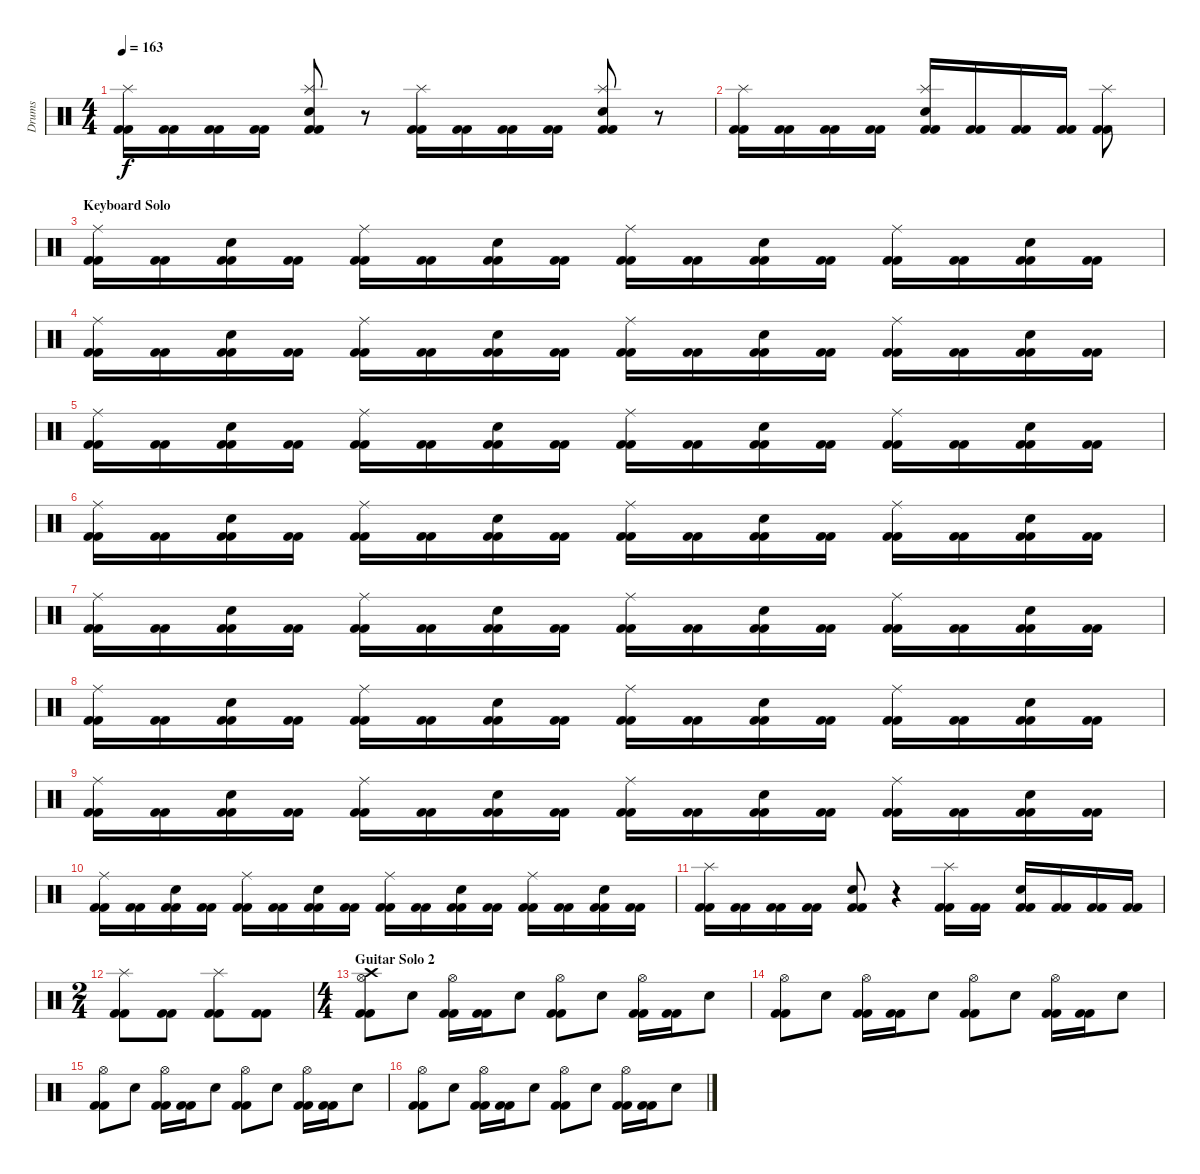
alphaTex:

\track ("Drums" "Drums") {instrument percussion}
\staff {score}
\articulation defaults
\ts (4 4)
\tempo 163
\clef neutral
\ks c
("Kick (hit) 2" "Kick (hit) 2" "Splash (hit)").16{dy f} ("Kick (hit) 2" "Kick (hit) 2").16 ("Kick (hit) 2" "Kick (hit) 2").16 ("Kick (hit) 2" "Kick (hit) 2").16 ("Kick (hit) 2" "Kick (hit) 2" "Snare (hit) 2" "Splash (hit)").8 r.8 ("Kick (hit) 2" "Kick (hit) 2" "Splash (hit)").16 ("Kick (hit) 2" "Kick (hit) 2").16 ("Kick (hit) 2" "Kick (hit) 2").16 ("Kick (hit) 2" "Kick (hit) 2").16 ("Kick (hit) 2" "Kick (hit) 2" "Snare (hit) 2" "Splash (hit)").8 r.8 |
("Kick (hit) 2" "Kick (hit) 2" "Splash (hit)").16 ("Kick (hit) 2" "Kick (hit) 2").16 ("Kick (hit) 2" "Kick (hit) 2").16 ("Kick (hit) 2" "Kick (hit) 2").16 ("Kick (hit) 2" "Kick (hit) 2" "Snare (hit) 2" "Splash (hit)").16 ("Kick (hit) 2" "Kick (hit) 2").16 ("Kick (hit) 2" "Kick (hit) 2").16 ("Kick (hit) 2" "Kick (hit) 2").16 ("Kick (hit) 2" "Kick (hit) 2" "Splash (hit)").8 |
\section ("" "Keyboard Solo")
("Kick (hit) 2" "Kick (hit) 2" "Ride (middle)").16 ("Kick (hit) 2" "Kick (hit) 2").16 ("Kick (hit) 2" "Kick (hit) 2" "Snare (hit) 2").16 ("Kick (hit) 2" "Kick (hit) 2").16 ("Kick (hit) 2" "Kick (hit) 2" "Ride (middle)").16 ("Kick (hit) 2" "Kick (hit) 2").16 ("Kick (hit) 2" "Kick (hit) 2" "Snare (hit) 2").16 ("Kick (hit) 2" "Kick (hit) 2").16 ("Kick (hit) 2" "Kick (hit) 2" "Ride (middle)").16 ("Kick (hit) 2" "Kick (hit) 2").16 ("Kick (hit) 2" "Kick (hit) 2" "Snare (hit) 2").16 ("Kick (hit) 2" "Kick (hit) 2").16 ("Kick (hit) 2" "Kick (hit) 2" "Ride (middle)").16 ("Kick (hit) 2" "Kick (hit) 2").16 ("Kick (hit) 2" "Kick (hit) 2" "Snare (hit) 2").16 ("Kick (hit) 2" "Kick (hit) 2").16 |
("Kick (hit) 2" "Kick (hit) 2" "Ride (middle)").16 ("Kick (hit) 2" "Kick (hit) 2").16 ("Kick (hit) 2" "Kick (hit) 2" "Snare (hit) 2").16 ("Kick (hit) 2" "Kick (hit) 2").16 ("Kick (hit) 2" "Kick (hit) 2" "Ride (middle)").16 ("Kick (hit) 2" "Kick (hit) 2").16 ("Kick (hit) 2" "Kick (hit) 2" "Snare (hit) 2").16 ("Kick (hit) 2" "Kick (hit) 2").16 ("Kick (hit) 2" "Kick (hit) 2" "Ride (middle)").16 ("Kick (hit) 2" "Kick (hit) 2").16 ("Kick (hit) 2" "Kick (hit) 2" "Snare (hit) 2").16 ("Kick (hit) 2" "Kick (hit) 2").16 ("Kick (hit) 2" "Kick (hit) 2" "Ride (middle)").16 ("Kick (hit) 2" "Kick (hit) 2").16 ("Kick (hit) 2" "Kick (hit) 2" "Snare (hit) 2").16 ("Kick (hit) 2" "Kick (hit) 2").16 |
("Kick (hit) 2" "Kick (hit) 2" "Ride (middle)").16 ("Kick (hit) 2" "Kick (hit) 2").16 ("Kick (hit) 2" "Kick (hit) 2" "Snare (hit) 2").16 ("Kick (hit) 2" "Kick (hit) 2").16 ("Kick (hit) 2" "Kick (hit) 2" "Ride (middle)").16 ("Kick (hit) 2" "Kick (hit) 2").16 ("Kick (hit) 2" "Kick (hit) 2" "Snare (hit) 2").16 ("Kick (hit) 2" "Kick (hit) 2").16 ("Kick (hit) 2" "Kick (hit) 2" "Ride (middle)").16 ("Kick (hit) 2" "Kick (hit) 2").16 ("Kick (hit) 2" "Kick (hit) 2" "Snare (hit) 2").16 ("Kick (hit) 2" "Kick (hit) 2").16 ("Kick (hit) 2" "Kick (hit) 2" "Ride (middle)").16 ("Kick (hit) 2" "Kick (hit) 2").16 ("Kick (hit) 2" "Kick (hit) 2" "Snare (hit) 2").16 ("Kick (hit) 2" "Kick (hit) 2").16 |
("Kick (hit) 2" "Kick (hit) 2" "Ride (middle)").16 ("Kick (hit) 2" "Kick (hit) 2").16 ("Kick (hit) 2" "Kick (hit) 2" "Snare (hit) 2").16 ("Kick (hit) 2" "Kick (hit) 2").16 ("Kick (hit) 2" "Kick (hit) 2" "Ride (middle)").16 ("Kick (hit) 2" "Kick (hit) 2").16 ("Kick (hit) 2" "Kick (hit) 2" "Snare (hit) 2").16 ("Kick (hit) 2" "Kick (hit) 2").16 ("Kick (hit) 2" "Kick (hit) 2" "Ride (middle)").16 ("Kick (hit) 2" "Kick (hit) 2").16 ("Kick (hit) 2" "Kick (hit) 2" "Snare (hit) 2").16 ("Kick (hit) 2" "Kick (hit) 2").16 ("Kick (hit) 2" "Kick (hit) 2" "Ride (middle)").16 ("Kick (hit) 2" "Kick (hit) 2").16 ("Kick (hit) 2" "Kick (hit) 2" "Snare (hit) 2").16 ("Kick (hit) 2" "Kick (hit) 2").16 |
("Kick (hit) 2" "Kick (hit) 2" "Ride (middle)").16 ("Kick (hit) 2" "Kick (hit) 2").16 ("Kick (hit) 2" "Kick (hit) 2" "Snare (hit) 2").16 ("Kick (hit) 2" "Kick (hit) 2").16 ("Kick (hit) 2" "Kick (hit) 2" "Ride (middle)").16 ("Kick (hit) 2" "Kick (hit) 2").16 ("Kick (hit) 2" "Kick (hit) 2" "Snare (hit) 2").16 ("Kick (hit) 2" "Kick (hit) 2").16 ("Kick (hit) 2" "Kick (hit) 2" "Ride (middle)").16 ("Kick (hit) 2" "Kick (hit) 2").16 ("Kick (hit) 2" "Kick (hit) 2" "Snare (hit) 2").16 ("Kick (hit) 2" "Kick (hit) 2").16 ("Kick (hit) 2" "Kick (hit) 2" "Ride (middle)").16 ("Kick (hit) 2" "Kick (hit) 2").16 ("Kick (hit) 2" "Kick (hit) 2" "Snare (hit) 2").16 ("Kick (hit) 2" "Kick (hit) 2").16 |
("Kick (hit) 2" "Kick (hit) 2" "Ride (middle)").16 ("Kick (hit) 2" "Kick (hit) 2").16 ("Kick (hit) 2" "Kick (hit) 2" "Snare (hit) 2").16 ("Kick (hit) 2" "Kick (hit) 2").16 ("Kick (hit) 2" "Kick (hit) 2" "Ride (middle)").16 ("Kick (hit) 2" "Kick (hit) 2").16 ("Kick (hit) 2" "Kick (hit) 2" "Snare (hit) 2").16 ("Kick (hit) 2" "Kick (hit) 2").16 ("Kick (hit) 2" "Kick (hit) 2" "Ride (middle)").16 ("Kick (hit) 2" "Kick (hit) 2").16 ("Kick (hit) 2" "Kick (hit) 2" "Snare (hit) 2").16 ("Kick (hit) 2" "Kick (hit) 2").16 ("Kick (hit) 2" "Kick (hit) 2" "Ride (middle)").16 ("Kick (hit) 2" "Kick (hit) 2").16 ("Kick (hit) 2" "Kick (hit) 2" "Snare (hit) 2").16 ("Kick (hit) 2" "Kick (hit) 2").16 |
("Kick (hit) 2" "Kick (hit) 2" "Ride (middle)").16 ("Kick (hit) 2" "Kick (hit) 2").16 ("Kick (hit) 2" "Kick (hit) 2" "Snare (hit) 2").16 ("Kick (hit) 2" "Kick (hit) 2").16 ("Kick (hit) 2" "Kick (hit) 2" "Ride (middle)").16 ("Kick (hit) 2" "Kick (hit) 2").16 ("Kick (hit) 2" "Kick (hit) 2" "Snare (hit) 2").16 ("Kick (hit) 2" "Kick (hit) 2").16 ("Kick (hit) 2" "Kick (hit) 2" "Ride (middle)").16 ("Kick (hit) 2" "Kick (hit) 2").16 ("Kick (hit) 2" "Kick (hit) 2" "Snare (hit) 2").16 ("Kick (hit) 2" "Kick (hit) 2").16 ("Kick (hit) 2" "Kick (hit) 2" "Ride (middle)").16 ("Kick (hit) 2" "Kick (hit) 2").16 ("Kick (hit) 2" "Kick (hit) 2" "Snare (hit) 2").16 ("Kick (hit) 2" "Kick (hit) 2").16 |
("Kick (hit) 2" "Kick (hit) 2" "Ride (middle)").16 ("Kick (hit) 2" "Kick (hit) 2").16 ("Kick (hit) 2" "Kick (hit) 2" "Snare (hit) 2").16 ("Kick (hit) 2" "Kick (hit) 2").16 ("Kick (hit) 2" "Kick (hit) 2" "Ride (middle)").16 ("Kick (hit) 2" "Kick (hit) 2").16 ("Kick (hit) 2" "Kick (hit) 2" "Snare (hit) 2").16 ("Kick (hit) 2" "Kick (hit) 2").16 ("Kick (hit) 2" "Kick (hit) 2" "Ride (middle)").16 ("Kick (hit) 2" "Kick (hit) 2").16 ("Kick (hit) 2" "Kick (hit) 2" "Snare (hit) 2").16 ("Kick (hit) 2" "Kick (hit) 2").16 ("Kick (hit) 2" "Kick (hit) 2" "Ride (middle)").16 ("Kick (hit) 2" "Kick (hit) 2").16 ("Kick (hit) 2" "Kick (hit) 2" "Snare (hit) 2").16 ("Kick (hit) 2" "Kick (hit) 2").16 |
("Kick (hit) 2" "Kick (hit) 2" "Splash (hit)").16 ("Kick (hit) 2" "Kick (hit) 2").16 ("Kick (hit) 2" "Kick (hit) 2").16 ("Kick (hit) 2" "Kick (hit) 2").16 ("Kick (hit) 2" "Kick (hit) 2" "Snare (hit) 2").8 r.4 ("Kick (hit) 2" "Kick (hit) 2" "Splash (hit)").16 ("Kick (hit) 2" "Kick (hit) 2").16 ("Kick (hit) 2" "Kick (hit) 2" "Snare (hit) 2").16 ("Kick (hit) 2" "Kick (hit) 2").16 ("Kick (hit) 2" "Kick (hit) 2").16 ("Kick (hit) 2" "Kick (hit) 2").16 |
\ts (2 4)
("Kick (hit) 2" "Kick (hit) 2" "Splash (hit)").8 ("Kick (hit) 2" "Kick (hit) 2").8 ("Kick (hit) 2" "Kick (hit) 2" "Splash (hit)").8 ("Kick (hit) 2" "Kick (hit) 2").8 |
\ts (4 4)
\section ("" "Guitar Solo 2")
("Kick (hit) 2" "Kick (hit) 2" "Hi-Hat (open)" "Crash high (hit)").8 "Snare (hit) 2".8 ("Kick (hit) 2" "Kick (hit) 2" "Hi-Hat (open)").16 ("Kick (hit) 2" "Kick (hit) 2").16 "Snare (hit) 2".8 ("Kick (hit) 2" "Kick (hit) 2" "Hi-Hat (open)").8 "Snare (hit) 2".8 ("Kick (hit) 2" "Kick (hit) 2" "Hi-Hat (open)").16 ("Kick (hit) 2" "Kick (hit) 2").16 "Snare (hit) 2".8 |
("Kick (hit) 2" "Kick (hit) 2" "Hi-Hat (open)").8 "Snare (hit) 2".8 ("Kick (hit) 2" "Kick (hit) 2" "Hi-Hat (open)").16 ("Kick (hit) 2" "Kick (hit) 2").16 "Snare (hit) 2".8 ("Kick (hit) 2" "Kick (hit) 2" "Hi-Hat (open)").8 "Snare (hit) 2".8 ("Kick (hit) 2" "Kick (hit) 2" "Hi-Hat (open)").16 ("Kick (hit) 2" "Kick (hit) 2").16 "Snare (hit) 2".8 |
("Kick (hit) 2" "Kick (hit) 2" "Hi-Hat (open)").8 "Snare (hit) 2".8 ("Kick (hit) 2" "Kick (hit) 2" "Hi-Hat (open)").16 ("Kick (hit) 2" "Kick (hit) 2").16 "Snare (hit) 2".8 ("Kick (hit) 2" "Kick (hit) 2" "Hi-Hat (open)").8 "Snare (hit) 2".8 ("Kick (hit) 2" "Kick (hit) 2" "Hi-Hat (open)").16 ("Kick (hit) 2" "Kick (hit) 2").16 "Snare (hit) 2".8 |
("Kick (hit) 2" "Kick (hit) 2" "Hi-Hat (open)").8 "Snare (hit) 2".8 ("Kick (hit) 2" "Kick (hit) 2" "Hi-Hat (open)").16 ("Kick (hit) 2" "Kick (hit) 2").16 "Snare (hit) 2".8 ("Kick (hit) 2" "Kick (hit) 2" "Hi-Hat (open)").8 "Snare (hit) 2".8 ("Kick (hit) 2" "Kick (hit) 2" "Hi-Hat (open)").16 ("Kick (hit) 2" "Kick (hit) 2").16 "Snare (hit) 2".8
